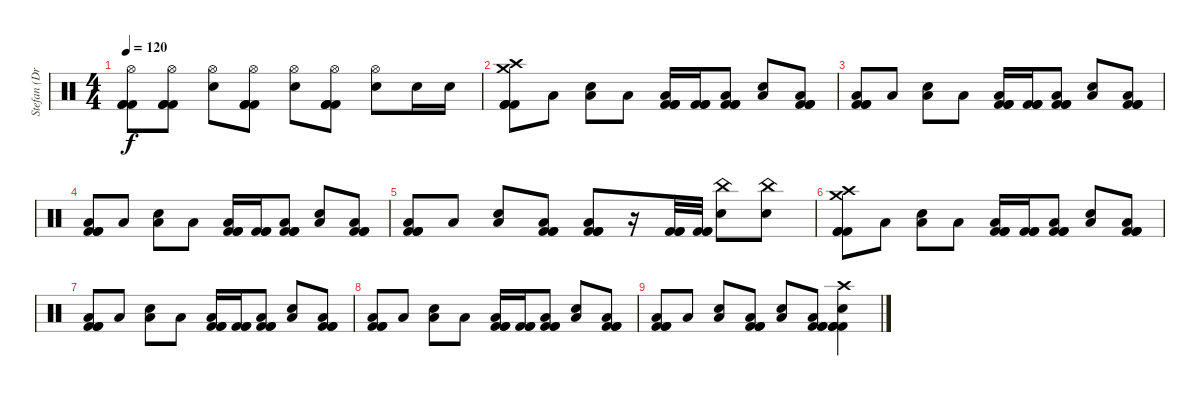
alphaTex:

\track ("Stefan (Drums)" "Stefan (Dr") {instrument percussion}
\staff {score}
\articulation defaults
\ts (4 4)
\tempo 120
\clef neutral
\ks c
("Hi-Hat (open)" "Kick (hit) 2" "Kick (hit) 2" "Kick (hit) 2").8{dy f} ("Hi-Hat (open)" "Kick (hit) 2" "Kick (hit) 2" "Kick (hit) 2").8 ("Hi-Hat (open)" "Snare (hit) 2").8 ("Hi-Hat (open)" "Kick (hit) 2" "Kick (hit) 2" "Kick (hit) 2").8 ("Hi-Hat (open)" "Snare (hit) 2").8 ("Hi-Hat (open)" "Kick (hit) 2" "Kick (hit) 2" "Kick (hit) 2").8 ("Hi-Hat (open)" "Snare (hit) 2").8 "Snare (hit) 2".16 "Snare (hit) 2".16 |
("Crash high (hit)" "Crash medium (hit)" "Kick (hit) 2" "Kick (hit) 2" "Kick (hit) 2").8 "Low Tom (hit)".8 ("Snare (hit) 2" "Low Tom (hit)").8 "Low Tom (hit)".8 ("Low Tom (hit)" "Kick (hit) 2" "Kick (hit) 2" "Kick (hit) 2").16 ("Kick (hit) 2" "Kick (hit) 2" "Kick (hit) 2").16 ("Low Tom (hit)" "Kick (hit) 2" "Kick (hit) 2" "Kick (hit) 2").8 ("Snare (hit) 2" "Low Tom (hit)").8 ("Low Tom (hit)" "Kick (hit) 2" "Kick (hit) 2" "Kick (hit) 2").8 |
("Low Tom (hit)" "Kick (hit) 2" "Kick (hit) 2" "Kick (hit) 2").8 "Low Tom (hit)".8 ("Snare (hit) 2" "Low Tom (hit)").8 "Low Tom (hit)".8 ("Low Tom (hit)" "Kick (hit) 2" "Kick (hit) 2" "Kick (hit) 2").16 ("Kick (hit) 2" "Kick (hit) 2" "Kick (hit) 2").16 ("Low Tom (hit)" "Kick (hit) 2" "Kick (hit) 2" "Kick (hit) 2").8 ("Snare (hit) 2" "Low Tom (hit)").8 ("Low Tom (hit)" "Kick (hit) 2" "Kick (hit) 2" "Kick (hit) 2").8 |
("Low Tom (hit)" "Kick (hit) 2" "Kick (hit) 2" "Kick (hit) 2").8 "Low Tom (hit)".8 ("Snare (hit) 2" "Low Tom (hit)").8 "Low Tom (hit)".8 ("Low Tom (hit)" "Kick (hit) 2" "Kick (hit) 2" "Kick (hit) 2").16 ("Kick (hit) 2" "Kick (hit) 2" "Kick (hit) 2").16 ("Low Tom (hit)" "Kick (hit) 2" "Kick (hit) 2" "Kick (hit) 2").8 ("Snare (hit) 2" "Low Tom (hit)").8 ("Low Tom (hit)" "Kick (hit) 2" "Kick (hit) 2" "Kick (hit) 2").8 |
("Low Tom (hit)" "Kick (hit) 2" "Kick (hit) 2" "Kick (hit) 2").8 "Low Tom (hit)".8 ("Snare (hit) 2" "Low Tom (hit)").8 ("Low Tom (hit)" "Kick (hit) 2" "Kick (hit) 2" "Kick (hit) 2").8 ("Low Tom (hit)" "Kick (hit) 2" "Kick (hit) 2" "Kick (hit) 2").8 r.16 ("Kick (hit) 2" "Kick (hit) 2" "Kick (hit) 2").32 ("Kick (hit) 2" "Kick (hit) 2" "Kick (hit) 2").32 ("China (hit)" "Snare (hit) 2").8 ("China (hit)" "Snare (hit) 2").8 |
("Crash high (hit)" "Crash medium (hit)" "Kick (hit) 2" "Kick (hit) 2" "Kick (hit) 2").8 "Low Tom (hit)".8 ("Snare (hit) 2" "Low Tom (hit)").8 "Low Tom (hit)".8 ("Low Tom (hit)" "Kick (hit) 2" "Kick (hit) 2" "Kick (hit) 2").16 ("Kick (hit) 2" "Kick (hit) 2" "Kick (hit) 2").16 ("Low Tom (hit)" "Kick (hit) 2" "Kick (hit) 2" "Kick (hit) 2").8 ("Snare (hit) 2" "Low Tom (hit)").8 ("Low Tom (hit)" "Kick (hit) 2" "Kick (hit) 2" "Kick (hit) 2").8 |
("Low Tom (hit)" "Kick (hit) 2" "Kick (hit) 2" "Kick (hit) 2").8 "Low Tom (hit)".8 ("Snare (hit) 2" "Low Tom (hit)").8 "Low Tom (hit)".8 ("Low Tom (hit)" "Kick (hit) 2" "Kick (hit) 2" "Kick (hit) 2").16 ("Kick (hit) 2" "Kick (hit) 2" "Kick (hit) 2").16 ("Low Tom (hit)" "Kick (hit) 2" "Kick (hit) 2" "Kick (hit) 2").8 ("Snare (hit) 2" "Low Tom (hit)").8 ("Low Tom (hit)" "Kick (hit) 2" "Kick (hit) 2" "Kick (hit) 2").8 |
("Low Tom (hit)" "Kick (hit) 2" "Kick (hit) 2" "Kick (hit) 2").8 "Low Tom (hit)".8 ("Snare (hit) 2" "Low Tom (hit)").8 "Low Tom (hit)".8 ("Low Tom (hit)" "Kick (hit) 2" "Kick (hit) 2" "Kick (hit) 2").16 ("Kick (hit) 2" "Kick (hit) 2" "Kick (hit) 2").16 ("Low Tom (hit)" "Kick (hit) 2" "Kick (hit) 2" "Kick (hit) 2").8 ("Snare (hit) 2" "Low Tom (hit)").8 ("Low Tom (hit)" "Kick (hit) 2" "Kick (hit) 2" "Kick (hit) 2").8 |
("Low Tom (hit)" "Kick (hit) 2" "Kick (hit) 2" "Kick (hit) 2").8 "Low Tom (hit)".8 ("Snare (hit) 2" "Low Tom (hit)").8 ("Low Tom (hit)" "Kick (hit) 2" "Kick (hit) 2" "Kick (hit) 2").8 ("Snare (hit) 2" "Low Tom (hit)").8 ("Low Tom (hit)" "Kick (hit) 2" "Kick (hit) 2" "Kick (hit) 2").8 ("Crash high (hit)" "Snare (hit) 2" "Kick (hit) 2" "Kick (hit) 2" "Kick (hit) 2").4
